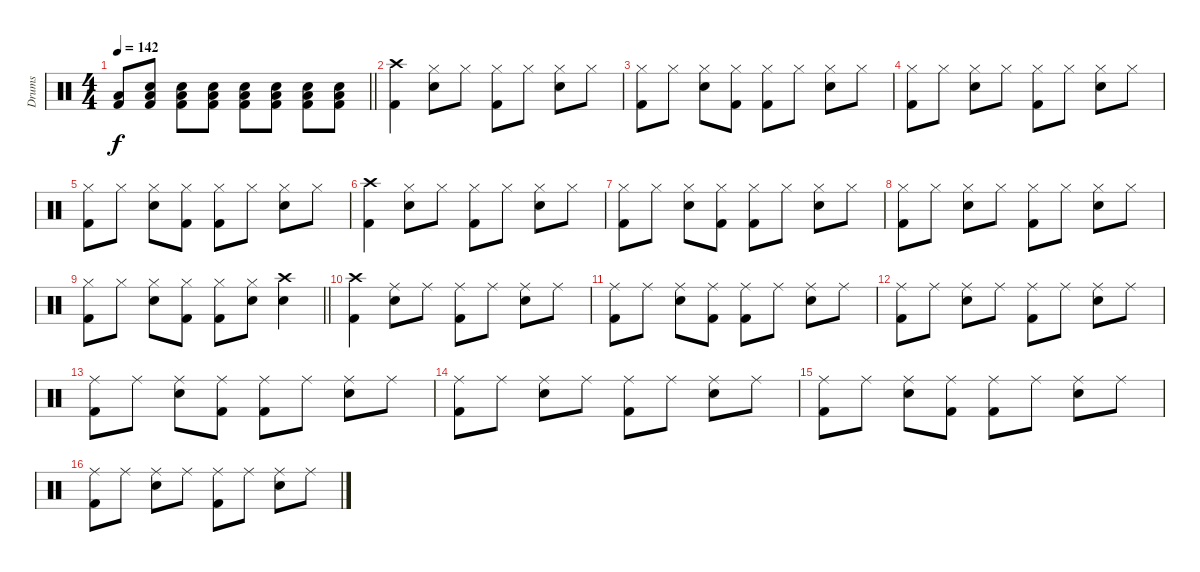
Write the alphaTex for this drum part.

\track ("Drums" "Drums") {instrument percussion}
\staff {score}
\articulation defaults
\ts (4 4)
\tempo 142
\clef neutral
\barLineRight lightlight
\ks c
("Low Tom (hit)" "Kick (hit) 2").8{dy f} ("Snare (hit) 2" "Low Tom (hit)" "Kick (hit) 2").8 ("Snare (hit) 2" "Low Tom (hit)" "Kick (hit) 2").8 ("Snare (hit) 2" "Low Tom (hit)" "Kick (hit) 2").8 ("Snare (hit) 2" "Low Tom (hit)" "Kick (hit) 2").8 ("Snare (hit) 2" "Low Tom (hit)" "Kick (hit) 2").8 ("Snare (hit) 2" "Low Tom (hit)" "Kick (hit) 2").8 ("Snare (hit) 2" "Low Tom (hit)" "Kick (hit) 2").8 |
("Crash high (hit)" "Kick (hit) 2").4 ("Hi-Hat (closed)" "Snare (hit) 2").8 "Hi-Hat (closed)".8 ("Hi-Hat (closed)" "Kick (hit) 2").8 "Hi-Hat (closed)".8 ("Hi-Hat (closed)" "Snare (hit) 2").8 "Hi-Hat (closed)".8 |
("Hi-Hat (closed)" "Kick (hit) 2").8 "Hi-Hat (closed)".8 ("Hi-Hat (closed)" "Snare (hit) 2").8 ("Hi-Hat (closed)" "Kick (hit) 2").8 ("Hi-Hat (closed)" "Kick (hit) 2").8 "Hi-Hat (closed)".8 ("Hi-Hat (closed)" "Snare (hit) 2").8 "Hi-Hat (closed)".8 |
("Hi-Hat (closed)" "Kick (hit) 2").8 "Hi-Hat (closed)".8 ("Hi-Hat (closed)" "Snare (hit) 2").8 "Hi-Hat (closed)".8 ("Hi-Hat (closed)" "Kick (hit) 2").8 "Hi-Hat (closed)".8 ("Hi-Hat (closed)" "Snare (hit) 2").8 "Hi-Hat (closed)".8 |
("Hi-Hat (closed)" "Kick (hit) 2").8 "Hi-Hat (closed)".8 ("Hi-Hat (closed)" "Snare (hit) 2").8 ("Hi-Hat (closed)" "Kick (hit) 2").8 ("Hi-Hat (closed)" "Kick (hit) 2").8 "Hi-Hat (closed)".8 ("Hi-Hat (closed)" "Snare (hit) 2").8 "Hi-Hat (closed)".8 |
("Crash high (hit)" "Kick (hit) 2").4 ("Hi-Hat (closed)" "Snare (hit) 2").8 "Hi-Hat (closed)".8 ("Hi-Hat (closed)" "Kick (hit) 2").8 "Hi-Hat (closed)".8 ("Hi-Hat (closed)" "Snare (hit) 2").8 "Hi-Hat (closed)".8 |
("Hi-Hat (closed)" "Kick (hit) 2").8 "Hi-Hat (closed)".8 ("Hi-Hat (closed)" "Snare (hit) 2").8 ("Hi-Hat (closed)" "Kick (hit) 2").8 ("Hi-Hat (closed)" "Kick (hit) 2").8 "Hi-Hat (closed)".8 ("Hi-Hat (closed)" "Snare (hit) 2").8 "Hi-Hat (closed)".8 |
("Hi-Hat (closed)" "Kick (hit) 2").8 "Hi-Hat (closed)".8 ("Hi-Hat (closed)" "Snare (hit) 2").8 "Hi-Hat (closed)".8 ("Hi-Hat (closed)" "Kick (hit) 2").8 "Hi-Hat (closed)".8 ("Hi-Hat (closed)" "Snare (hit) 2").8 "Hi-Hat (closed)".8 |
\barLineRight lightlight
("Hi-Hat (closed)" "Kick (hit) 2").8 "Hi-Hat (closed)".8 ("Hi-Hat (closed)" "Snare (hit) 2").8 ("Hi-Hat (closed)" "Kick (hit) 2").8 ("Hi-Hat (closed)" "Kick (hit) 2").8 ("Hi-Hat (closed)" "Snare (hit) 2").8 ("Crash high (hit)" "Snare (hit) 2").4 |
("Crash high (hit)" "Kick (hit) 2").4 ("Ride (middle)" "Snare (hit) 2").8 "Ride (middle)".8 ("Ride (middle)" "Kick (hit) 2").8 "Ride (middle)".8 ("Ride (middle)" "Snare (hit) 2").8 "Ride (middle)".8 |
("Ride (middle)" "Kick (hit) 2").8 "Ride (middle)".8 ("Ride (middle)" "Snare (hit) 2").8 ("Ride (middle)" "Kick (hit) 2").8 ("Ride (middle)" "Kick (hit) 2").8 "Ride (middle)".8 ("Ride (middle)" "Snare (hit) 2").8 "Ride (middle)".8 |
("Ride (middle)" "Kick (hit) 2").8 "Ride (middle)".8 ("Ride (middle)" "Snare (hit) 2").8 "Ride (middle)".8 ("Ride (middle)" "Kick (hit) 2").8 "Ride (middle)".8 ("Ride (middle)" "Snare (hit) 2").8 "Ride (middle)".8 |
("Ride (middle)" "Kick (hit) 2").8 "Ride (middle)".8 ("Ride (middle)" "Snare (hit) 2").8 ("Ride (middle)" "Kick (hit) 2").8 ("Ride (middle)" "Kick (hit) 2").8 "Ride (middle)".8 ("Ride (middle)" "Snare (hit) 2").8 "Ride (middle)".8 |
("Ride (middle)" "Kick (hit) 2").8 "Ride (middle)".8 ("Ride (middle)" "Snare (hit) 2").8 "Ride (middle)".8 ("Ride (middle)" "Kick (hit) 2").8 "Ride (middle)".8 ("Ride (middle)" "Snare (hit) 2").8 "Ride (middle)".8 |
("Ride (middle)" "Kick (hit) 2").8 "Ride (middle)".8 ("Ride (middle)" "Snare (hit) 2").8 ("Ride (middle)" "Kick (hit) 2").8 ("Ride (middle)" "Kick (hit) 2").8 "Ride (middle)".8 ("Ride (middle)" "Snare (hit) 2").8 "Ride (middle)".8 |
("Ride (middle)" "Kick (hit) 2").8 "Ride (middle)".8 ("Ride (middle)" "Snare (hit) 2").8 "Ride (middle)".8 ("Ride (middle)" "Kick (hit) 2").8 "Ride (middle)".8 ("Ride (middle)" "Snare (hit) 2").8 "Ride (middle)".8
